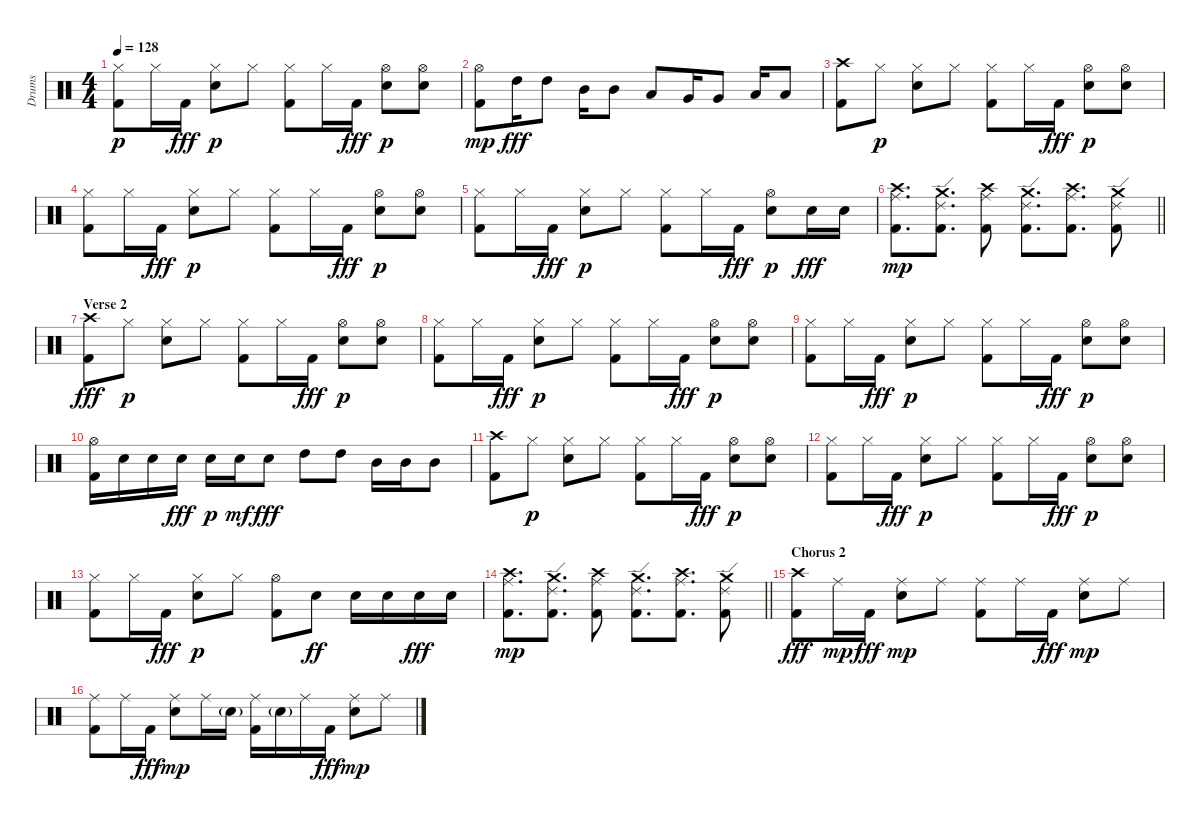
\track ("Drums" "Drums") {instrument percussion}
\staff {score}
\articulation defaults
\ts (4 4)
\tempo 128
\clef neutral
\ks c
("Kick (hit) 2" "Hi-Hat (closed)").8{dy p} "Hi-Hat (closed)".16 "Kick (hit) 2".16{dy fff} ("Electric Snare (hit)" "Hi-Hat (closed)").8{dy p} "Hi-Hat (closed)".8 ("Kick (hit) 2" "Hi-Hat (closed)").8 "Hi-Hat (closed)".16 "Kick (hit) 2".16{dy fff} ("Electric Snare (hit)" "Hi-Hat (open)").8{dy p} ("Electric Snare (hit)" "Hi-Hat (open)").8 |
("Kick (hit) 2" "Hi-Hat (open)").8{dy mp} "High Tom (hit)".16{dy fff} "High Tom (hit)".8 "Mid Tom (hit)".16 "Mid Tom (hit)".8 "Low Tom (hit)".8 "Very Low Tom (hit)".16 "Very Low Tom (hit)".8 "Low Floor Tom (hit)".16 "Low Floor Tom (hit)".8 |
("Kick (hit) 2" "Crash high (hit)").8 "Hi-Hat (closed)".8{dy p} ("Electric Snare (hit)" "Hi-Hat (closed)").8 "Hi-Hat (closed)".8 ("Kick (hit) 2" "Hi-Hat (closed)").8 "Hi-Hat (closed)".16 "Kick (hit) 2".16{dy fff} ("Electric Snare (hit)" "Hi-Hat (open)").8{dy p} ("Electric Snare (hit)" "Hi-Hat (open)").8 |
("Kick (hit) 2" "Hi-Hat (closed)").8 "Hi-Hat (closed)".16 "Kick (hit) 2".16{dy fff} ("Electric Snare (hit)" "Hi-Hat (closed)").8{dy p} "Hi-Hat (closed)".8 ("Kick (hit) 2" "Hi-Hat (closed)").8 "Hi-Hat (closed)".16 "Kick (hit) 2".16{dy fff} ("Electric Snare (hit)" "Hi-Hat (open)").8{dy p} ("Electric Snare (hit)" "Hi-Hat (open)").8 |
("Kick (hit) 2" "Hi-Hat (closed)").8 "Hi-Hat (closed)".16 "Kick (hit) 2".16{dy fff} ("Electric Snare (hit)" "Hi-Hat (closed)").8{dy p} "Hi-Hat (closed)".8 ("Kick (hit) 2" "Hi-Hat (closed)").8 "Hi-Hat (closed)".16 "Kick (hit) 2".16{dy fff} ("Electric Snare (hit)" "Hi-Hat (open)").8{dy p} "Electric Snare (hit)".16{dy fff} "Electric Snare (hit)".16 |
\barLineRight lightlight
("Kick (hit) 2" "Ride (middle)" "Crash high (hit)").8{d dy mp} ("Kick (hit) 2" "Ride (edge) 2" "Crash medium (hit)").8{d} ("Kick (hit) 2" "Ride (middle)" "Crash high (hit)").8 ("Kick (hit) 2" "Ride (edge) 2" "Crash medium (hit)").8{d} ("Kick (hit) 2" "Ride (middle)" "Crash high (hit)").8{d} ("Kick (hit) 2" "Ride (edge) 2" "Crash medium (hit)").8 |
\section ("" "Verse 2")
("Kick (hit) 2" "Crash high (hit)").8{dy fff} "Hi-Hat (closed)".8{dy p} ("Electric Snare (hit)" "Hi-Hat (closed)").8 "Hi-Hat (closed)".8 ("Kick (hit) 2" "Hi-Hat (closed)").8 "Hi-Hat (closed)".16 "Kick (hit) 2".16{dy fff} ("Electric Snare (hit)" "Hi-Hat (open)").8{dy p} ("Electric Snare (hit)" "Hi-Hat (open)").8 |
("Kick (hit) 2" "Hi-Hat (closed)").8 "Hi-Hat (closed)".16 "Kick (hit) 2".16{dy fff} ("Electric Snare (hit)" "Hi-Hat (closed)").8{dy p} "Hi-Hat (closed)".8 ("Kick (hit) 2" "Hi-Hat (closed)").8 "Hi-Hat (closed)".16 "Kick (hit) 2".16{dy fff} ("Electric Snare (hit)" "Hi-Hat (open)").8{dy p} ("Electric Snare (hit)" "Hi-Hat (open)").8 |
("Kick (hit) 2" "Hi-Hat (closed)").8 "Hi-Hat (closed)".16 "Kick (hit) 2".16{dy fff} ("Electric Snare (hit)" "Hi-Hat (closed)").8{dy p} "Hi-Hat (closed)".8 ("Kick (hit) 2" "Hi-Hat (closed)").8 "Hi-Hat (closed)".16 "Kick (hit) 2".16{dy fff} ("Electric Snare (hit)" "Hi-Hat (open)").8{dy p} ("Electric Snare (hit)" "Hi-Hat (open)").8 |
("Kick (hit) 2" "Hi-Hat (open)").16 "Electric Snare (hit)".16 "Electric Snare (hit)".16 "Electric Snare (hit)".16{dy fff} "Electric Snare (hit)".16{dy p} "Electric Snare (hit)".16{dy mf} "Electric Snare (hit)".8{dy fff} "High Tom (hit)".8 "High Tom (hit)".8 "Mid Tom (hit)".16 "Mid Tom (hit)".16 "Mid Tom (hit)".8 |
("Kick (hit) 2" "Crash high (hit)").8 "Hi-Hat (closed)".8{dy p} ("Electric Snare (hit)" "Hi-Hat (closed)").8 "Hi-Hat (closed)".8 ("Kick (hit) 2" "Hi-Hat (closed)").8 "Hi-Hat (closed)".16 "Kick (hit) 2".16{dy fff} ("Electric Snare (hit)" "Hi-Hat (open)").8{dy p} ("Electric Snare (hit)" "Hi-Hat (open)").8 |
("Kick (hit) 2" "Hi-Hat (closed)").8 "Hi-Hat (closed)".16 "Kick (hit) 2".16{dy fff} ("Electric Snare (hit)" "Hi-Hat (closed)").8{dy p} "Hi-Hat (closed)".8 ("Kick (hit) 2" "Hi-Hat (closed)").8 "Hi-Hat (closed)".16 "Kick (hit) 2".16{dy fff} ("Electric Snare (hit)" "Hi-Hat (open)").8{dy p} ("Electric Snare (hit)" "Hi-Hat (open)").8 |
("Kick (hit) 2" "Hi-Hat (closed)").8 "Hi-Hat (closed)".16 "Kick (hit) 2".16{dy fff} ("Electric Snare (hit)" "Hi-Hat (closed)").8{dy p} "Hi-Hat (closed)".8 ("Kick (hit) 2" "Hi-Hat (open)").8 "Electric Snare (hit)".8{dy ff} "Electric Snare (hit)".16 "Electric Snare (hit)".16 "Electric Snare (hit)".16{dy fff} "Electric Snare (hit)".16 |
\barLineRight lightlight
("Kick (hit) 2" "Ride (middle)" "Crash high (hit)").8{d dy mp} ("Kick (hit) 2" "Ride (edge) 2" "Crash medium (hit)").8{d} ("Kick (hit) 2" "Ride (middle)" "Crash high (hit)").8 ("Kick (hit) 2" "Ride (edge) 2" "Crash medium (hit)").8{d} ("Kick (hit) 2" "Ride (middle)" "Crash high (hit)").8{d} ("Kick (hit) 2" "Ride (edge) 2" "Crash medium (hit)").8 |
\section ("" "Chorus 2")
("Kick (hit) 2" "Crash high (hit)").8{dy fff} "Ride (middle)".16{dy mp} "Kick (hit) 2".16{dy fff} ("Electric Snare (hit)" "Ride (middle)").8{dy mp} "Ride (middle)".8 ("Kick (hit) 2" "Ride (middle)").8 "Ride (middle)".16 "Kick (hit) 2".16{dy fff} ("Electric Snare (hit)" "Ride (middle)").8{dy mp} "Ride (middle)".8 |
("Kick (hit) 2" "Ride (middle)").8 "Ride (middle)".16 "Kick (hit) 2".16{dy fff} ("Electric Snare (hit)" "Ride (middle)").8{dy mp} "Ride (middle)".16 "Electric Snare (hit)"{g}.16 ("Kick (hit) 2" "Ride (middle)").16 "Electric Snare (hit)"{g}.16 "Ride (middle)".16 "Kick (hit) 2".16{dy fff} ("Electric Snare (hit)" "Ride (middle)").8{dy mp} "Ride (middle)".8
